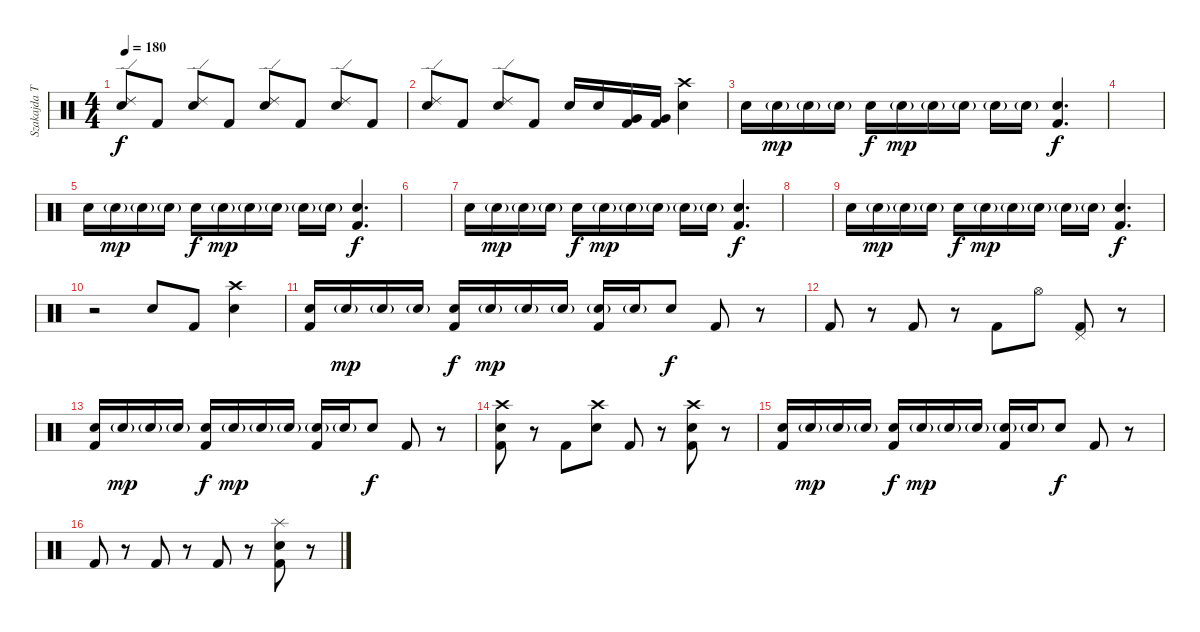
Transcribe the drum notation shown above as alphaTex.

\track ("Szakajda Tibi" "Szakajda T") {instrument percussion}
\staff {score}
\articulation defaults
\ts (4 4)
\tempo 180
\clef neutral
\ks c
("Ride (edge) 2" "Electric Snare (hit)").8{dy f} "Kick (hit) 2".8 ("Ride (edge) 2" "Electric Snare (hit)").8 "Kick (hit) 2".8 ("Ride (edge) 2" "Electric Snare (hit)").8 "Kick (hit) 2".8 ("Ride (edge) 2" "Electric Snare (hit)").8 "Kick (hit) 2".8 |
("Ride (edge) 2" "Electric Snare (hit)").8 "Kick (hit) 2".8 ("Ride (edge) 2" "Electric Snare (hit)").8 "Kick (hit) 2".8 "Electric Snare (hit)".16 "Electric Snare (hit)".16 ("Very Low Tom (hit)" "Kick (hit) 2").16 ("Very Low Tom (hit)" "Kick (hit) 2").16 ("Crash high (hit)" "Electric Snare (hit)").4 |
"Electric Snare (hit)".16 "Electric Snare (hit)"{g}.16{dy mp} "Electric Snare (hit)"{g}.16 "Electric Snare (hit)"{g}.16 "Electric Snare (hit)".16{dy f} "Electric Snare (hit)"{g}.16{dy mp} "Electric Snare (hit)"{g}.16 "Electric Snare (hit)"{g}.16 "Electric Snare (hit)"{g}.16 "Electric Snare (hit)"{g}.16 ("Electric Snare (hit)" "Kick (hit) 2").4{d dy f} |
|
"Electric Snare (hit)".16 "Electric Snare (hit)"{g}.16{dy mp} "Electric Snare (hit)"{g}.16 "Electric Snare (hit)"{g}.16 "Electric Snare (hit)".16{dy f} "Electric Snare (hit)"{g}.16{dy mp} "Electric Snare (hit)"{g}.16 "Electric Snare (hit)"{g}.16 "Electric Snare (hit)"{g}.16 "Electric Snare (hit)"{g}.16 ("Electric Snare (hit)" "Kick (hit) 2").4{d dy f} |
|
"Electric Snare (hit)".16 "Electric Snare (hit)"{g}.16{dy mp} "Electric Snare (hit)"{g}.16 "Electric Snare (hit)"{g}.16 "Electric Snare (hit)".16{dy f} "Electric Snare (hit)"{g}.16{dy mp} "Electric Snare (hit)"{g}.16 "Electric Snare (hit)"{g}.16 "Electric Snare (hit)"{g}.16 "Electric Snare (hit)"{g}.16 ("Electric Snare (hit)" "Kick (hit) 2").4{d dy f} |
|
"Electric Snare (hit)".16 "Electric Snare (hit)"{g}.16{dy mp} "Electric Snare (hit)"{g}.16 "Electric Snare (hit)"{g}.16 "Electric Snare (hit)".16{dy f} "Electric Snare (hit)"{g}.16{dy mp} "Electric Snare (hit)"{g}.16 "Electric Snare (hit)"{g}.16 "Electric Snare (hit)"{g}.16 "Electric Snare (hit)"{g}.16 ("Electric Snare (hit)" "Kick (hit) 2").4{d dy f} |
r.2 "Electric Snare (hit)".8 "Kick (hit) 2".8 ("Crash high (hit)" "Electric Snare (hit)").4 |
("Electric Snare (hit)" "Kick (hit) 2").16 "Electric Snare (hit)"{g}.16{dy mp} "Electric Snare (hit)"{g}.16 "Electric Snare (hit)"{g}.16 ("Electric Snare (hit)" "Kick (hit) 2").16{dy f} "Electric Snare (hit)"{g}.16{dy mp} "Electric Snare (hit)"{g}.16 "Electric Snare (hit)"{g}.16 ("Electric Snare (hit)"{g} "Kick (hit) 2").16 "Electric Snare (hit)"{g}.16 "Electric Snare (hit)".8{dy f} "Kick (hit) 2".8 r.8 |
"Kick (hit) 2".8 r.8 "Kick (hit) 2".8 r.8 "Kick (hit) 2".8 "Hi-Hat (open)".8 ("Pedal Hi-Hat (hit)" "Kick (hit) 2").8 r.8 |
("Electric Snare (hit)" "Kick (hit) 2").16 "Electric Snare (hit)"{g}.16{dy mp} "Electric Snare (hit)"{g}.16 "Electric Snare (hit)"{g}.16 ("Electric Snare (hit)" "Kick (hit) 2").16{dy f} "Electric Snare (hit)"{g}.16{dy mp} "Electric Snare (hit)"{g}.16 "Electric Snare (hit)"{g}.16 ("Electric Snare (hit)"{g} "Kick (hit) 2").16 "Electric Snare (hit)"{g}.16 "Electric Snare (hit)".8{dy f} "Kick (hit) 2".8 r.8 |
("Crash high (hit)" "Electric Snare (hit)" "Kick (hit) 2").8 r.8 "Kick (hit) 2".8 ("Crash high (hit)" "Electric Snare (hit)").8 "Kick (hit) 2".8 r.8 ("Crash high (hit)" "Electric Snare (hit)" "Kick (hit) 2").8 r.8 |
("Electric Snare (hit)" "Kick (hit) 2").16 "Electric Snare (hit)"{g}.16{dy mp} "Electric Snare (hit)"{g}.16 "Electric Snare (hit)"{g}.16 ("Electric Snare (hit)" "Kick (hit) 2").16{dy f} "Electric Snare (hit)"{g}.16{dy mp} "Electric Snare (hit)"{g}.16 "Electric Snare (hit)"{g}.16 ("Electric Snare (hit)"{g} "Kick (hit) 2").16 "Electric Snare (hit)"{g}.16 "Electric Snare (hit)".8{dy f} "Kick (hit) 2".8 r.8 |
"Kick (hit) 2".8 r.8 "Kick (hit) 2".8 r.8 "Kick (hit) 2".8 r.8 ("Splash (hit)" "Electric Snare (hit)" "Kick (hit) 2").8 r.8
